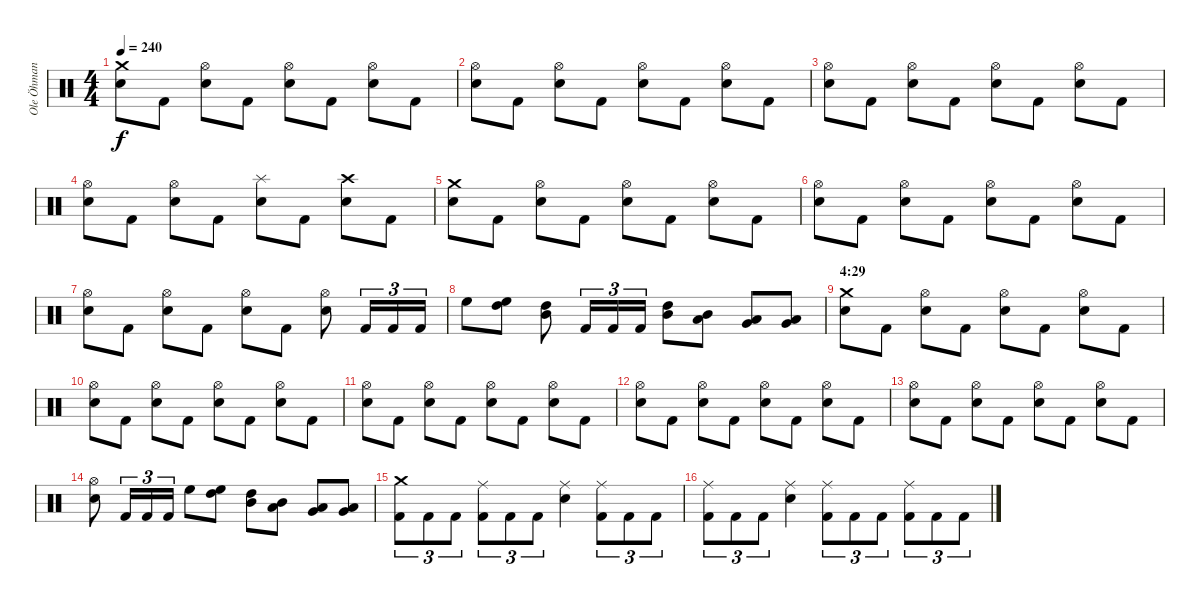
\track ("Ole Öhman" "Ole Öhman") {instrument percussion}
\staff {score}
\articulation defaults
\ts (4 4)
\tempo 240
\clef neutral
\ks c
("Crash medium (hit)" "Electric Snare (hit)").8{dy f} "Kick (hit) 2".8 ("Hi-Hat (open)" "Electric Snare (hit)").8 "Kick (hit) 2".8 ("Hi-Hat (open)" "Electric Snare (hit)").8 "Kick (hit) 2".8 ("Hi-Hat (open)" "Electric Snare (hit)").8 "Kick (hit) 2".8 |
("Hi-Hat (open)" "Electric Snare (hit)").8 "Kick (hit) 2".8 ("Hi-Hat (open)" "Electric Snare (hit)").8 "Kick (hit) 2".8 ("Hi-Hat (open)" "Electric Snare (hit)").8 "Kick (hit) 2".8 ("Hi-Hat (open)" "Electric Snare (hit)").8 "Kick (hit) 2".8 |
("Hi-Hat (open)" "Electric Snare (hit)").8 "Kick (hit) 2".8 ("Hi-Hat (open)" "Electric Snare (hit)").8 "Kick (hit) 2".8 ("Hi-Hat (open)" "Electric Snare (hit)").8 "Kick (hit) 2".8 ("Hi-Hat (open)" "Electric Snare (hit)").8 "Kick (hit) 2".8 |
("Hi-Hat (open)" "Electric Snare (hit)").8 "Kick (hit) 2".8 ("Hi-Hat (open)" "Electric Snare (hit)").8 "Kick (hit) 2".8 ("Splash (hit)" "Electric Snare (hit)").8 "Kick (hit) 2".8 ("Crash high (hit)" "Electric Snare (hit)").8 "Kick (hit) 2".8 |
("Crash medium (hit)" "Electric Snare (hit)").8 "Kick (hit) 2".8 ("Hi-Hat (open)" "Electric Snare (hit)").8 "Kick (hit) 2".8 ("Hi-Hat (open)" "Electric Snare (hit)").8 "Kick (hit) 2".8 ("Hi-Hat (open)" "Electric Snare (hit)").8 "Kick (hit) 2".8 |
("Hi-Hat (open)" "Electric Snare (hit)").8 "Kick (hit) 2".8 ("Hi-Hat (open)" "Electric Snare (hit)").8 "Kick (hit) 2".8 ("Hi-Hat (open)" "Electric Snare (hit)").8 "Kick (hit) 2".8 ("Hi-Hat (open)" "Electric Snare (hit)").8 "Kick (hit) 2".8 |
("Hi-Hat (open)" "Electric Snare (hit)").8 "Kick (hit) 2".8 ("Hi-Hat (open)" "Electric Snare (hit)").8 "Kick (hit) 2".8 ("Hi-Hat (open)" "Electric Snare (hit)").8 "Kick (hit) 2".8 ("Hi-Hat (open)" "Electric Snare (hit)").8 "Kick (hit) 2".16{tu (3 2)} "Kick (hit) 2".16{tu (3 2)} "Kick (hit) 2".16{tu (3 2)} |
"High Floor Tom (hit)".8 ("High Floor Tom (hit)" "High Tom (hit)").8 ("High Tom (hit)" "Mid Tom (hit)").8 "Kick (hit) 2".16{tu (3 2)} "Kick (hit) 2".16{tu (3 2)} "Kick (hit) 2".16{tu (3 2)} ("High Tom (hit)" "Mid Tom (hit)").8 ("Mid Tom (hit)" "Low Tom (hit)").8 ("Low Tom (hit)" "Very Low Tom (hit)").8 ("Very Low Tom (hit)" "Low Floor Tom (hit)").8 |
\section ("" "4:29")
("Crash medium (hit)" "Electric Snare (hit)").8 "Kick (hit) 2".8 ("Hi-Hat (open)" "Electric Snare (hit)").8 "Kick (hit) 2".8 ("Hi-Hat (open)" "Electric Snare (hit)").8 "Kick (hit) 2".8 ("Hi-Hat (open)" "Electric Snare (hit)").8 "Kick (hit) 2".8 |
("Hi-Hat (open)" "Electric Snare (hit)").8 "Kick (hit) 2".8 ("Hi-Hat (open)" "Electric Snare (hit)").8 "Kick (hit) 2".8 ("Hi-Hat (open)" "Electric Snare (hit)").8 "Kick (hit) 2".8 ("Hi-Hat (open)" "Electric Snare (hit)").8 "Kick (hit) 2".8 |
("Hi-Hat (open)" "Electric Snare (hit)").8 "Kick (hit) 2".8 ("Hi-Hat (open)" "Electric Snare (hit)").8 "Kick (hit) 2".8 ("Hi-Hat (open)" "Electric Snare (hit)").8 "Kick (hit) 2".8 ("Hi-Hat (open)" "Electric Snare (hit)").8 "Kick (hit) 2".8 |
("Hi-Hat (open)" "Electric Snare (hit)").8 "Kick (hit) 2".8 ("Hi-Hat (open)" "Electric Snare (hit)").8 "Kick (hit) 2".8 ("Hi-Hat (open)" "Electric Snare (hit)").8 "Kick (hit) 2".8 ("Hi-Hat (open)" "Electric Snare (hit)").8 "Kick (hit) 2".8 |
("Hi-Hat (open)" "Electric Snare (hit)").8 "Kick (hit) 2".8 ("Hi-Hat (open)" "Electric Snare (hit)").8 "Kick (hit) 2".8 ("Hi-Hat (open)" "Electric Snare (hit)").8 "Kick (hit) 2".8 ("Hi-Hat (open)" "Electric Snare (hit)").8 "Kick (hit) 2".8 |
("Hi-Hat (open)" "Electric Snare (hit)").8 "Kick (hit) 2".16{tu (3 2)} "Kick (hit) 2".16{tu (3 2)} "Kick (hit) 2".16{tu (3 2)} "High Floor Tom (hit)".8 ("High Floor Tom (hit)" "High Tom (hit)").8 ("High Tom (hit)" "Mid Tom (hit)").8 ("Mid Tom (hit)" "Low Tom (hit)").8 ("Low Tom (hit)" "Very Low Tom (hit)").8 ("Very Low Tom (hit)" "Low Floor Tom (hit)").8 |
("Crash medium (hit)" "Kick (hit) 2").8{tu (3 2)} "Kick (hit) 2".8{tu (3 2)} "Kick (hit) 2".8{tu (3 2)} ("Ride (middle)" "Kick (hit) 2").8{tu (3 2)} "Kick (hit) 2".8{tu (3 2)} "Kick (hit) 2".8{tu (3 2)} ("Ride (middle)" "Electric Snare (hit)").4 ("Ride (middle)" "Kick (hit) 2").8{tu (3 2)} "Kick (hit) 2".8{tu (3 2)} "Kick (hit) 2".8{tu (3 2)} |
("Ride (middle)" "Kick (hit) 2").8{tu (3 2)} "Kick (hit) 2".8{tu (3 2)} "Kick (hit) 2".8{tu (3 2)} ("Ride (middle)" "Electric Snare (hit)").4 ("Ride (middle)" "Kick (hit) 2").8{tu (3 2)} "Kick (hit) 2".8{tu (3 2)} "Kick (hit) 2".8{tu (3 2)} ("Ride (middle)" "Kick (hit) 2").8{tu (3 2)} "Kick (hit) 2".8{tu (3 2)} "Kick (hit) 2".8{tu (3 2)}
